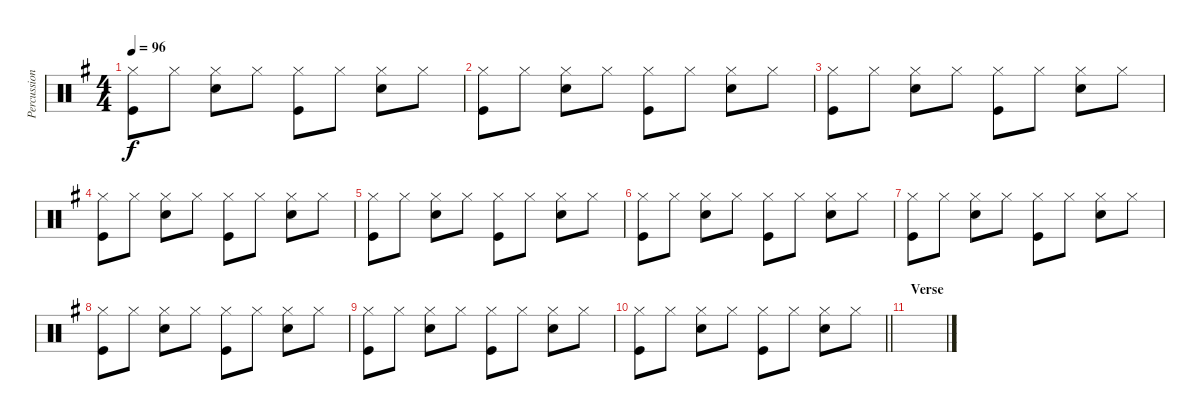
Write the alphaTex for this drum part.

\track ("Percussion" "Percussion") {instrument percussion}
\staff {score}
\articulation defaults
\ts (4 4)
\tempo 96
\clef neutral
\ks g
("Hi-Hat (closed)" "Kick (hit)").8{dy f} "Hi-Hat (closed)".8 ("Hi-Hat (closed)" "Snare (hit) 2").8 "Hi-Hat (closed)".8 ("Hi-Hat (closed)" "Kick (hit)").8 "Hi-Hat (closed)".8 ("Hi-Hat (closed)" "Snare (hit) 2").8 "Hi-Hat (closed)".8 |
("Hi-Hat (closed)" "Kick (hit)").8 "Hi-Hat (closed)".8 ("Hi-Hat (closed)" "Snare (hit) 2").8 "Hi-Hat (closed)".8 ("Hi-Hat (closed)" "Kick (hit)").8 "Hi-Hat (closed)".8 ("Hi-Hat (closed)" "Snare (hit) 2").8 "Hi-Hat (closed)".8 |
("Hi-Hat (closed)" "Kick (hit)").8 "Hi-Hat (closed)".8 ("Hi-Hat (closed)" "Snare (hit) 2").8 "Hi-Hat (closed)".8 ("Hi-Hat (closed)" "Kick (hit)").8 "Hi-Hat (closed)".8 ("Hi-Hat (closed)" "Snare (hit) 2").8 "Hi-Hat (closed)".8 |
("Hi-Hat (closed)" "Kick (hit)").8 "Hi-Hat (closed)".8 ("Hi-Hat (closed)" "Snare (hit) 2").8 "Hi-Hat (closed)".8 ("Hi-Hat (closed)" "Kick (hit)").8 "Hi-Hat (closed)".8 ("Hi-Hat (closed)" "Snare (hit) 2").8 "Hi-Hat (closed)".8 |
("Hi-Hat (closed)" "Kick (hit)").8 "Hi-Hat (closed)".8 ("Hi-Hat (closed)" "Snare (hit) 2").8 "Hi-Hat (closed)".8 ("Hi-Hat (closed)" "Kick (hit)").8 "Hi-Hat (closed)".8 ("Hi-Hat (closed)" "Snare (hit) 2").8 "Hi-Hat (closed)".8 |
("Hi-Hat (closed)" "Kick (hit)").8 "Hi-Hat (closed)".8 ("Hi-Hat (closed)" "Snare (hit) 2").8 "Hi-Hat (closed)".8 ("Hi-Hat (closed)" "Kick (hit)").8 "Hi-Hat (closed)".8 ("Hi-Hat (closed)" "Snare (hit) 2").8 "Hi-Hat (closed)".8 |
("Hi-Hat (closed)" "Kick (hit)").8 "Hi-Hat (closed)".8 ("Hi-Hat (closed)" "Snare (hit) 2").8 "Hi-Hat (closed)".8 ("Hi-Hat (closed)" "Kick (hit)").8 "Hi-Hat (closed)".8 ("Hi-Hat (closed)" "Snare (hit) 2").8 "Hi-Hat (closed)".8 |
("Hi-Hat (closed)" "Kick (hit)").8 "Hi-Hat (closed)".8 ("Hi-Hat (closed)" "Snare (hit) 2").8 "Hi-Hat (closed)".8 ("Hi-Hat (closed)" "Kick (hit)").8 "Hi-Hat (closed)".8 ("Hi-Hat (closed)" "Snare (hit) 2").8 "Hi-Hat (closed)".8 |
("Hi-Hat (closed)" "Kick (hit)").8 "Hi-Hat (closed)".8 ("Hi-Hat (closed)" "Snare (hit) 2").8 "Hi-Hat (closed)".8 ("Hi-Hat (closed)" "Kick (hit)").8 "Hi-Hat (closed)".8 ("Hi-Hat (closed)" "Snare (hit) 2").8 "Hi-Hat (closed)".8 |
\barLineRight lightlight
("Hi-Hat (closed)" "Kick (hit)").8 "Hi-Hat (closed)".8 ("Hi-Hat (closed)" "Snare (hit) 2").8 "Hi-Hat (closed)".8 ("Hi-Hat (closed)" "Kick (hit)").8 "Hi-Hat (closed)".8 ("Hi-Hat (closed)" "Snare (hit) 2").8 "Hi-Hat (closed)".8 |
\section ("" "Verse")
